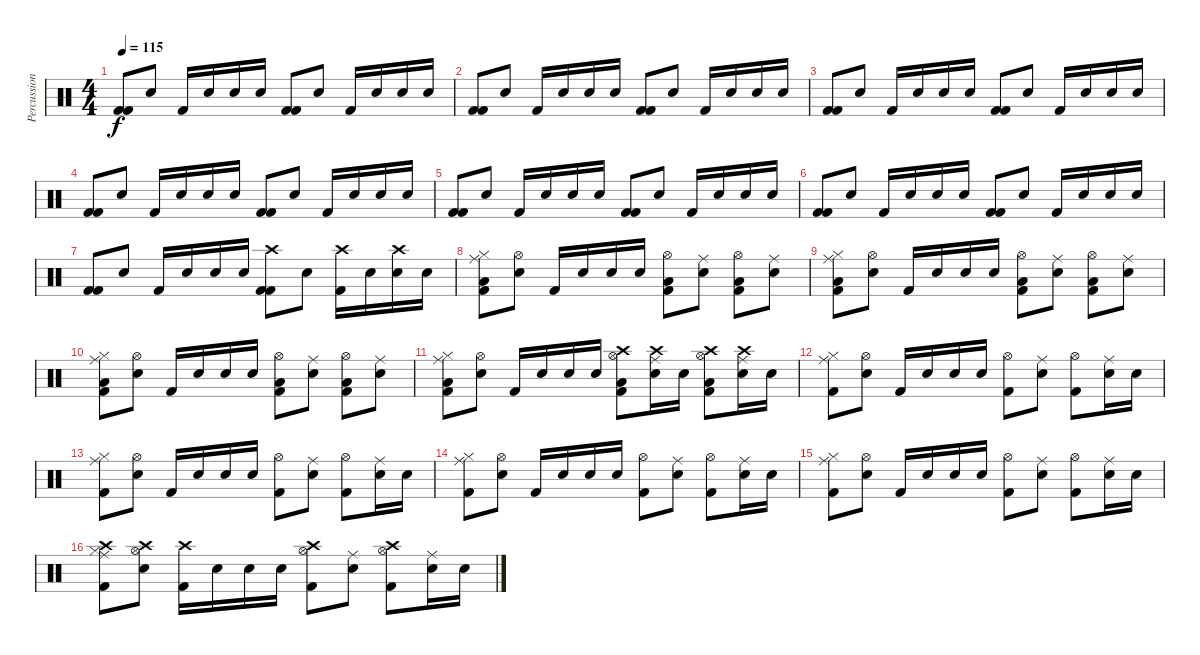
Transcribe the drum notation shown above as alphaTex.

\track ("Percussion" "Percussion") {instrument percussion}
\staff {score}
\articulation defaults
\ts (4 4)
\tempo 115
\clef neutral
\ks c
("Kick (hit) 2" "Kick (hit) 2").8{dy f} "Snare (hit) 2".8 "Kick (hit) 2".16 "Snare (hit) 2".16 "Snare (hit) 2".16 "Snare (hit) 2".16 ("Kick (hit) 2" "Kick (hit) 2").8 "Snare (hit) 2".8 "Kick (hit) 2".16 "Snare (hit) 2".16 "Snare (hit) 2".16 "Snare (hit) 2".16 |
("Kick (hit) 2" "Kick (hit) 2").8 "Snare (hit) 2".8 "Kick (hit) 2".16 "Snare (hit) 2".16 "Snare (hit) 2".16 "Snare (hit) 2".16 ("Kick (hit) 2" "Kick (hit) 2").8 "Snare (hit) 2".8 "Kick (hit) 2".16 "Snare (hit) 2".16 "Snare (hit) 2".16 "Snare (hit) 2".16 |
("Kick (hit) 2" "Kick (hit) 2").8 "Snare (hit) 2".8 "Kick (hit) 2".16 "Snare (hit) 2".16 "Snare (hit) 2".16 "Snare (hit) 2".16 ("Kick (hit) 2" "Kick (hit) 2").8 "Snare (hit) 2".8 "Kick (hit) 2".16 "Snare (hit) 2".16 "Snare (hit) 2".16 "Snare (hit) 2".16 |
("Kick (hit) 2" "Kick (hit) 2").8 "Snare (hit) 2".8 "Kick (hit) 2".16 "Snare (hit) 2".16 "Snare (hit) 2".16 "Snare (hit) 2".16 ("Kick (hit) 2" "Kick (hit) 2").8 "Snare (hit) 2".8 "Kick (hit) 2".16 "Snare (hit) 2".16 "Snare (hit) 2".16 "Snare (hit) 2".16 |
("Kick (hit) 2" "Kick (hit) 2").8 "Snare (hit) 2".8 "Kick (hit) 2".16 "Snare (hit) 2".16 "Snare (hit) 2".16 "Snare (hit) 2".16 ("Kick (hit) 2" "Kick (hit) 2").8 "Snare (hit) 2".8 "Kick (hit) 2".16 "Snare (hit) 2".16 "Snare (hit) 2".16 "Snare (hit) 2".16 |
("Kick (hit) 2" "Kick (hit) 2").8 "Snare (hit) 2".8 "Kick (hit) 2".16 "Snare (hit) 2".16 "Snare (hit) 2".16 "Snare (hit) 2".16 ("Kick (hit) 2" "Kick (hit) 2").8 "Snare (hit) 2".8 "Kick (hit) 2".16 "Snare (hit) 2".16 "Snare (hit) 2".16 "Snare (hit) 2".16 |
("Kick (hit) 2" "Kick (hit) 2").8 "Snare (hit) 2".8 "Kick (hit) 2".16 "Snare (hit) 2".16 "Snare (hit) 2".16 "Snare (hit) 2".16 ("Crash high (hit)" "Kick (hit) 2" "Kick (hit) 2").8 "Snare (hit) 2".8 ("Crash high (hit)" "Kick (hit) 2").16 "Snare (hit) 2".16 ("Crash high (hit)" "Snare (hit) 2").16 "Snare (hit) 2".16 |
("Ride (middle)" "Hi-Hat (closed)" "Kick (hit) 2" "Low Tom (hit)").8 ("Snare (hit) 2" "Hi-Hat (open)").8 "Kick (hit) 2".16 "Snare (hit) 2".16 "Snare (hit) 2".16 "Snare (hit) 2".16 ("Hi-Hat (open)" "Low Tom (hit)" "Kick (hit) 2").8 ("Ride (middle)" "Snare (hit) 2").8 ("Hi-Hat (open)" "Low Tom (hit)" "Kick (hit) 2").8 ("Ride (middle)" "Snare (hit) 2").8 |
("Ride (middle)" "Hi-Hat (closed)" "Kick (hit) 2" "Low Tom (hit)").8 ("Snare (hit) 2" "Hi-Hat (open)").8 "Kick (hit) 2".16 "Snare (hit) 2".16 "Snare (hit) 2".16 "Snare (hit) 2".16 ("Hi-Hat (open)" "Low Tom (hit)" "Kick (hit) 2").8 ("Ride (middle)" "Snare (hit) 2").8 ("Hi-Hat (open)" "Low Tom (hit)" "Kick (hit) 2").8 ("Ride (middle)" "Snare (hit) 2").8 |
("Ride (middle)" "Hi-Hat (closed)" "Kick (hit) 2" "Low Tom (hit)").8 ("Snare (hit) 2" "Hi-Hat (open)").8 "Kick (hit) 2".16 "Snare (hit) 2".16 "Snare (hit) 2".16 "Snare (hit) 2".16 ("Hi-Hat (open)" "Low Tom (hit)" "Kick (hit) 2").8 ("Ride (middle)" "Snare (hit) 2").8 ("Hi-Hat (open)" "Low Tom (hit)" "Kick (hit) 2").8 ("Ride (middle)" "Snare (hit) 2").8 |
("Ride (middle)" "Hi-Hat (closed)" "Kick (hit) 2" "Low Tom (hit)").8 ("Snare (hit) 2" "Hi-Hat (open)").8 "Kick (hit) 2".16 "Snare (hit) 2".16 "Snare (hit) 2".16 "Snare (hit) 2".16 ("Crash high (hit)" "Hi-Hat (open)" "Low Tom (hit)" "Kick (hit) 2").8 ("Crash high (hit)" "Ride (middle)" "Snare (hit) 2").16 "Snare (hit) 2".16 ("Crash high (hit)" "Hi-Hat (open)" "Kick (hit) 2" "Low Tom (hit)").8 ("Crash high (hit)" "Ride (middle)" "Snare (hit) 2").16 "Snare (hit) 2".16 |
("Ride (middle)" "Hi-Hat (closed)" "Kick (hit) 2").8 ("Snare (hit) 2" "Hi-Hat (open)").8 "Kick (hit) 2".16 "Snare (hit) 2".16 "Snare (hit) 2".16 "Snare (hit) 2".16 ("Hi-Hat (open)" "Kick (hit) 2").8 ("Ride (middle)" "Snare (hit) 2").8 ("Hi-Hat (open)" "Kick (hit) 2").8 ("Ride (middle)" "Snare (hit) 2").16 "Snare (hit) 2".16 |
("Ride (middle)" "Hi-Hat (closed)" "Kick (hit) 2").8 ("Snare (hit) 2" "Hi-Hat (open)").8 "Kick (hit) 2".16 "Snare (hit) 2".16 "Snare (hit) 2".16 "Snare (hit) 2".16 ("Hi-Hat (open)" "Kick (hit) 2").8 ("Ride (middle)" "Snare (hit) 2").8 ("Hi-Hat (open)" "Kick (hit) 2").8 ("Ride (middle)" "Snare (hit) 2").16 "Snare (hit) 2".16 |
("Ride (middle)" "Hi-Hat (closed)" "Kick (hit) 2").8 ("Snare (hit) 2" "Hi-Hat (open)").8 "Kick (hit) 2".16 "Snare (hit) 2".16 "Snare (hit) 2".16 "Snare (hit) 2".16 ("Hi-Hat (open)" "Kick (hit) 2").8 ("Ride (middle)" "Snare (hit) 2").8 ("Hi-Hat (open)" "Kick (hit) 2").8 ("Ride (middle)" "Snare (hit) 2").16 "Snare (hit) 2".16 |
("Ride (middle)" "Hi-Hat (closed)" "Kick (hit) 2").8 ("Snare (hit) 2" "Hi-Hat (open)").8 "Kick (hit) 2".16 "Snare (hit) 2".16 "Snare (hit) 2".16 "Snare (hit) 2".16 ("Hi-Hat (open)" "Kick (hit) 2").8 ("Ride (middle)" "Snare (hit) 2").8 ("Hi-Hat (open)" "Kick (hit) 2").8 ("Ride (middle)" "Snare (hit) 2").16 "Snare (hit) 2".16 |
("Crash high (hit)" "Ride (middle)" "Hi-Hat (closed)" "Kick (hit) 2").8 ("Crash high (hit)" "Snare (hit) 2" "Hi-Hat (open)").8 ("Crash high (hit)" "Kick (hit) 2").16 "Snare (hit) 2".16 "Snare (hit) 2".16 "Snare (hit) 2".16 ("Crash high (hit)" "Hi-Hat (open)" "Kick (hit) 2").8 ("Ride (middle)" "Snare (hit) 2").8 ("Crash high (hit)" "Hi-Hat (open)" "Kick (hit) 2").8 ("Ride (middle)" "Snare (hit) 2").16 "Snare (hit) 2".16
